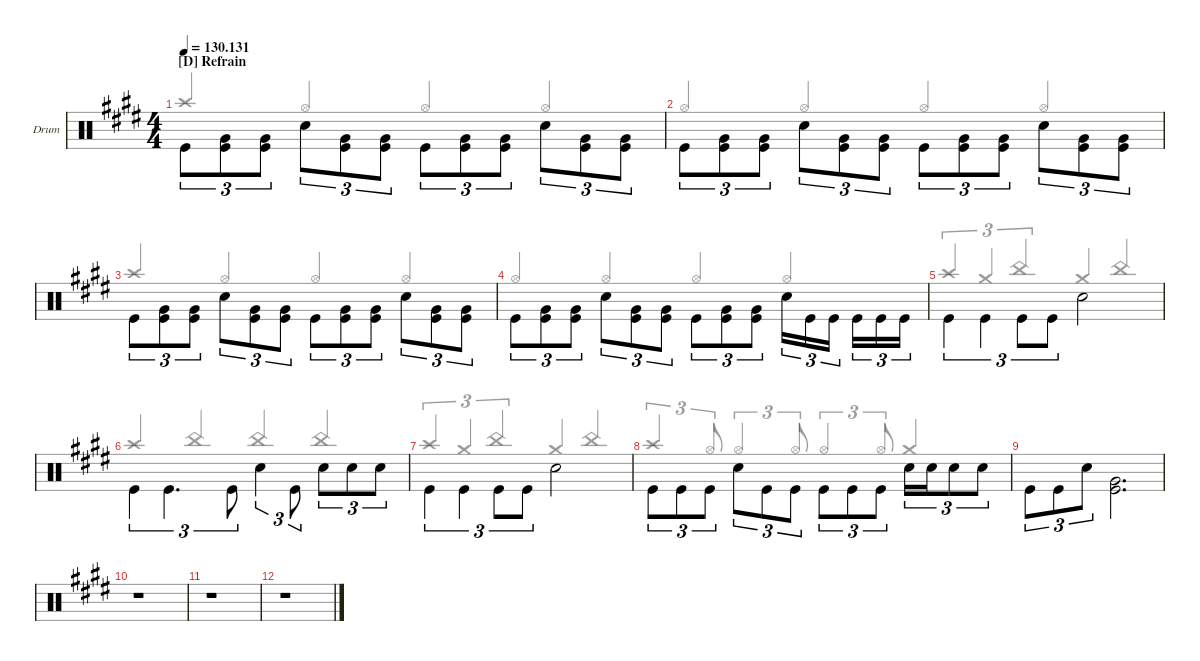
\defaultSystemsLayout 4
\hideDynamics
\bracketExtendMode nobrackets
\firstSystemTrackNameOrientation horizontal
\track ("BATTERIE" "Drum") {defaultSystemsLayout 4 instrument percussion}
\staff {score}
\articulation defaults
\voice
\ts (4 4)
\section ("D" "Refrain")
\tempo
130.131
\accidentals auto
\clef neutral
\ottava regular
\simile none
\ks e "Kick (hit)"{acc forcenatural}.8{tu (3 2) dy mf beam Down}
("Kick (hit)"{acc forcenatural} "Very Low Tom (hit)"{acc forcenatural}).8{tu (3 2) beam Down} ("Kick (hit)"{acc forcenatural} "Very Low Tom (hit)"{acc forcenatural}).8{tu (3 2) beam Down} "Snare (hit) 2"{acc forcenatural}.8{tu (3 2) beam Down} ("Kick (hit)"{acc forcenatural} "Very Low Tom (hit)"{acc forcenatural}).8{tu (3 2) beam Down} ("Kick (hit)"{acc forcenatural} "Very Low Tom (hit)"{acc forcenatural}).8{tu (3 2) beam Down} "Kick (hit)"{acc forcenatural}.8{tu (3 2) beam Down} ("Kick (hit)"{acc forcenatural} "Very Low Tom (hit)"{acc forcenatural}).8{tu (3 2) beam Down} ("Kick (hit)"{acc forcenatural} "Very Low Tom (hit)"{acc forcenatural}).8{tu (3 2) beam Down} "Snare (hit) 2"{acc forcenatural}.8{tu (3 2) beam Down} ("Kick (hit)"{acc forcenatural} "Very Low Tom (hit)"{acc forcenatural}).8{tu (3 2) beam Down} ("Kick (hit)"{acc forcenatural} "Very Low Tom (hit)"{acc forcenatural}).8{tu (3 2) beam Down} |
"Kick (hit)"{acc forcenatural}.8{tu (3 2) beam Down} ("Kick (hit)"{acc forcenatural} "Very Low Tom (hit)"{acc forcenatural}).8{tu (3 2) beam Down} ("Kick (hit)"{acc forcenatural} "Very Low Tom (hit)"{acc forcenatural}).8{tu (3 2) beam Down} "Snare (hit) 2"{acc forcenatural}.8{tu (3 2) beam Down} ("Kick (hit)"{acc forcenatural} "Very Low Tom (hit)"{acc forcenatural}).8{tu (3 2) beam Down} ("Kick (hit)"{acc forcenatural} "Very Low Tom (hit)"{acc forcenatural}).8{tu (3 2) beam Down} "Kick (hit)"{acc forcenatural}.8{tu (3 2) beam Down} ("Kick (hit)"{acc forcenatural} "Very Low Tom (hit)"{acc forcenatural}).8{tu (3 2) beam Down} ("Kick (hit)"{acc forcenatural} "Very Low Tom (hit)"{acc forcenatural}).8{tu (3 2) beam Down} "Snare (hit) 2"{acc forcenatural}.8{tu (3 2) beam Down} ("Kick (hit)"{acc forcenatural} "Very Low Tom (hit)"{acc forcenatural}).8{tu (3 2) beam Down} ("Kick (hit)"{acc forcenatural} "Very Low Tom (hit)"{acc forcenatural}).8{tu (3 2) beam Down} |
"Kick (hit)"{acc forcenatural}.8{tu (3 2) beam Down} ("Kick (hit)"{acc forcenatural} "Very Low Tom (hit)"{acc forcenatural}).8{tu (3 2) beam Down} ("Kick (hit)"{acc forcenatural} "Very Low Tom (hit)"{acc forcenatural}).8{tu (3 2) beam Down} "Snare (hit) 2"{acc forcenatural}.8{tu (3 2) beam Down} ("Kick (hit)"{acc forcenatural} "Very Low Tom (hit)"{acc forcenatural}).8{tu (3 2) beam Down} ("Kick (hit)"{acc forcenatural} "Very Low Tom (hit)"{acc forcenatural}).8{tu (3 2) beam Down} "Kick (hit)"{acc forcenatural}.8{tu (3 2) beam Down} ("Kick (hit)"{acc forcenatural} "Very Low Tom (hit)"{acc forcenatural}).8{tu (3 2) beam Down} ("Kick (hit)"{acc forcenatural} "Very Low Tom (hit)"{acc forcenatural}).8{tu (3 2) beam Down} "Snare (hit) 2"{acc forcenatural}.8{tu (3 2) beam Down} ("Kick (hit)"{acc forcenatural} "Very Low Tom (hit)"{acc forcenatural}).8{tu (3 2) beam Down} ("Kick (hit)"{acc forcenatural} "Very Low Tom (hit)"{acc forcenatural}).8{tu (3 2) beam Down} |
"Kick (hit)"{acc forcenatural}.8{tu (3 2) beam Down} ("Kick (hit)"{acc forcenatural} "Very Low Tom (hit)"{acc forcenatural}).8{tu (3 2) beam Down} ("Kick (hit)"{acc forcenatural} "Very Low Tom (hit)"{acc forcenatural}).8{tu (3 2) beam Down} "Snare (hit) 2"{acc forcenatural}.8{tu (3 2) beam Down} ("Kick (hit)"{acc forcenatural} "Very Low Tom (hit)"{acc forcenatural}).8{tu (3 2) beam Down} ("Kick (hit)"{acc forcenatural} "Very Low Tom (hit)"{acc forcenatural}).8{tu (3 2) beam Down} "Kick (hit)"{acc forcenatural}.8{tu (3 2) beam Down} ("Kick (hit)"{acc forcenatural} "Very Low Tom (hit)"{acc forcenatural}).8{tu (3 2) beam Down} ("Kick (hit)"{acc forcenatural} "Very Low Tom (hit)"{acc forcenatural}).8{tu (3 2) beam Down} "Snare (hit) 2"{acc forcenatural}.16{tu (3 2) beam Down} "Kick (hit)"{acc forcenatural}.16{tu (3 2) beam Down} "Kick (hit)"{acc forcenatural}.16{tu (3 2) beam Down} "Kick (hit)"{acc forcenatural}.16{tu (3 2) beam Down} "Kick (hit)"{acc forcenatural}.16{tu (3 2) beam Down} "Kick (hit)"{acc forcenatural}.16{tu (3 2) beam Down} |
"Kick (hit)"{acc forcenatural}.4{tu (3 2) beam Down} "Kick (hit)"{acc forcenatural}.4{tu (3 2) beam Down} "Kick (hit)"{acc forcenatural}.8{tu (3 2) beam Down} "Kick (hit)"{acc forcenatural}.8{tu (3 2) beam Down} "Snare (hit) 2"{acc forcenatural}.2{beam Down} |
"Kick (hit)"{acc forcenatural}.4{tu (3 2) beam Down} "Kick (hit)"{acc forcenatural}.4{d tu (3 2) beam Down} "Kick (hit)"{acc forcenatural}.8{tu (3 2) beam Down} "Snare (hit) 2"{acc forcenatural}.4{tu (3 2) beam Down} "Kick (hit)"{acc forcenatural}.8{tu (3 2) beam Down} "Snare (hit) 2"{acc forcenatural}.8{tu (3 2) beam Down} "Snare (hit) 2"{acc forcenatural}.8{tu (3 2) beam Down} "Snare (hit) 2"{acc forcenatural}.8{tu (3 2) beam Down} |
"Kick (hit)"{acc forcenatural}.4{tu (3 2) beam Down} "Kick (hit)"{acc forcenatural}.4{tu (3 2) beam Down} "Kick (hit)"{acc forcenatural}.8{tu (3 2) beam Down} "Kick (hit)"{acc forcenatural}.8{tu (3 2) beam Down} "Snare (hit) 2"{acc forcenatural}.2{beam Down} |
"Kick (hit)"{acc forcenatural}.8{tu (3 2) beam Down} "Kick (hit)"{acc forcenatural}.8{tu (3 2) beam Down} "Kick (hit)"{acc forcenatural}.8{tu (3 2) beam Down} "Snare (hit) 2"{acc forcenatural}.8{tu (3 2) beam Down} "Kick (hit)"{acc forcenatural}.8{tu (3 2) beam Down} "Kick (hit)"{acc forcenatural}.8{tu (3 2) beam Down} "Kick (hit)"{acc forcenatural}.8{tu (3 2) beam Down} "Kick (hit)"{acc forcenatural}.8{tu (3 2) beam Down} "Kick (hit)"{acc forcenatural}.8{tu (3 2) beam Down} "Snare (hit) 2"{acc forcenatural}.16{tu (3 2) beam Down} "Snare (hit) 2"{acc forcenatural}.16{tu (3 2) beam Down} "Snare (hit) 2"{acc forcenatural}.8{tu (3 2) beam Down} "Snare (hit) 2"{acc forcenatural}.8{tu (3 2) beam Down} |
\scale
0.397681 "Kick (hit)"{acc forcenatural}.8{tu (3 2) beam Down} "Kick (hit)"{acc forcenatural}.8{tu (3 2) beam Down} "Snare (hit) 2"{acc forcenatural}.8{tu (3 2) beam Down} ("Kick (hit)"{acc forcenatural} "Very Low Tom (hit)"{acc forcenatural}).2{d beam Down} |
\scale
0.196196 r.1{beam Down} |
\scale
0.196196 r.1{beam Down} |
\scale
0.209927 r.1{beam Down}
\voice
\clef neutral
\ottava regular
\simile none
\ks e "Crash high (hit)"{acc forcenatural}.4{dy mf beam Up} "Hi-Hat (open)"{acc forcenatural}.4{beam Up} "Hi-Hat (open)"{acc forcenatural}.4{beam Up} "Hi-Hat (open)"{acc forcenatural}.4{beam Up}
|
"Hi-Hat (open)"{acc forcenatural}.4{beam Up} "Hi-Hat (open)"{acc forcenatural}.4{beam Up} "Hi-Hat (open)"{acc forcenatural}.4{beam Up} "Hi-Hat (open)"{acc forcenatural}.4{beam Up} |
"Crash high (hit)"{acc forcenatural}.4{beam Up} "Hi-Hat (open)"{acc forcenatural}.4{beam Up} "Hi-Hat (open)"{acc forcenatural}.4{beam Up} "Hi-Hat (open)"{acc forcenatural}.4{beam Up} |
"Hi-Hat (open)"{acc forcenatural}.4{beam Up} "Hi-Hat (open)"{acc forcenatural}.4{beam Up} "Hi-Hat (open)"{acc forcenatural}.4{beam Up} "Hi-Hat (open)"{acc forcenatural}.4{beam Up} |
"Crash high (hit)"{acc forcenatural}.4{tu (3 2) beam Up} "Crash medium (hit)"{acc forcenatural}.4{tu (3 2) beam Up} "China (hit)"{acc forcenatural}.4{tu (3 2) beam Up} "Crash medium (hit)"{acc forcenatural}.4{beam Up} "China (hit)"{acc forcenatural}.4{beam Up} |
"Crash high (hit)"{acc forcenatural}.4{beam Up} "China (hit)"{acc forcenatural}.4{beam Up} "China (hit)"{acc forcenatural}.4{beam Up} "China (hit)"{acc forcenatural}.4{beam Up} |
"Crash high (hit)"{acc forcenatural}.4{tu (3 2) beam Up} "Crash medium (hit)"{acc forcenatural}.4{tu (3 2) beam Up} "China (hit)"{acc forcenatural}.4{tu (3 2) beam Up} "Crash medium (hit)"{acc forcenatural}.4{beam Up} "China (hit)"{acc forcenatural}.4{beam Up} |
"Crash high (hit)"{acc forcenatural}.4{tu (3 2) beam Up} "Hi-Hat (open)"{acc forcenatural}.8{tu (3 2) beam Up} "Hi-Hat (open)"{acc forcenatural}.4{tu (3 2) beam Up} "Hi-Hat (open)"{acc forcenatural}.8{tu (3 2) beam Up} "Hi-Hat (open)"{acc forcenatural}.4{tu (3 2) beam Up} "Hi-Hat (open)"{acc forcenatural}.8{tu (3 2) beam Up} "Crash medium (hit)"{acc forcenatural}.4{beam Up} |
\scale
0.397681 |
\scale
0.196196 |
\scale
0.196196 |
\scale
0.209927
